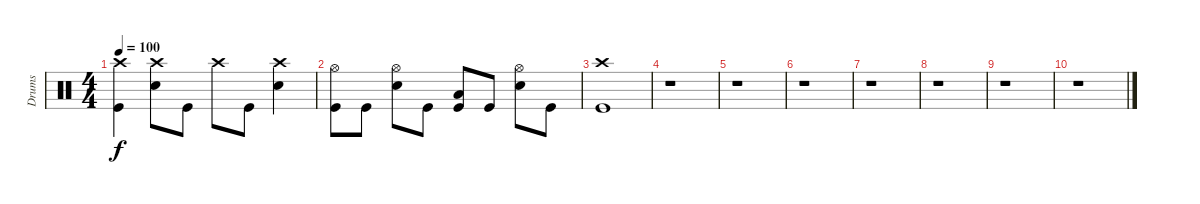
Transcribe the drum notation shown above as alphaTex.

\track ("Drums" "Drums") {instrument percussion}
\staff {score}
\articulation defaults
\ts (4 4)
\tempo 100
\clef neutral
\ks c
("Crash high (hit)" "Kick (hit)").4{dy f} ("Crash high (hit)" "Electric Snare (hit)").8 "Kick (hit)".8 "Crash high (hit)".8 "Kick (hit)".8 ("Crash high (hit)" "Electric Snare (hit)").4 |
("Hi-Hat (open)" "Kick (hit)").8 "Kick (hit)".8 ("Hi-Hat (open)" "Electric Snare (hit)").8 "Kick (hit)".8 ("Low Tom (hit)" "Kick (hit)").8 "Kick (hit)".8 ("Hi-Hat (open)" "Electric Snare (hit)").8 "Kick (hit)".8 |
("Crash high (hit)" "Kick (hit)").1 |
r.1 |
r.1 |
r.1 |
r.1 |
r.1 |
r.1 |
r.1
